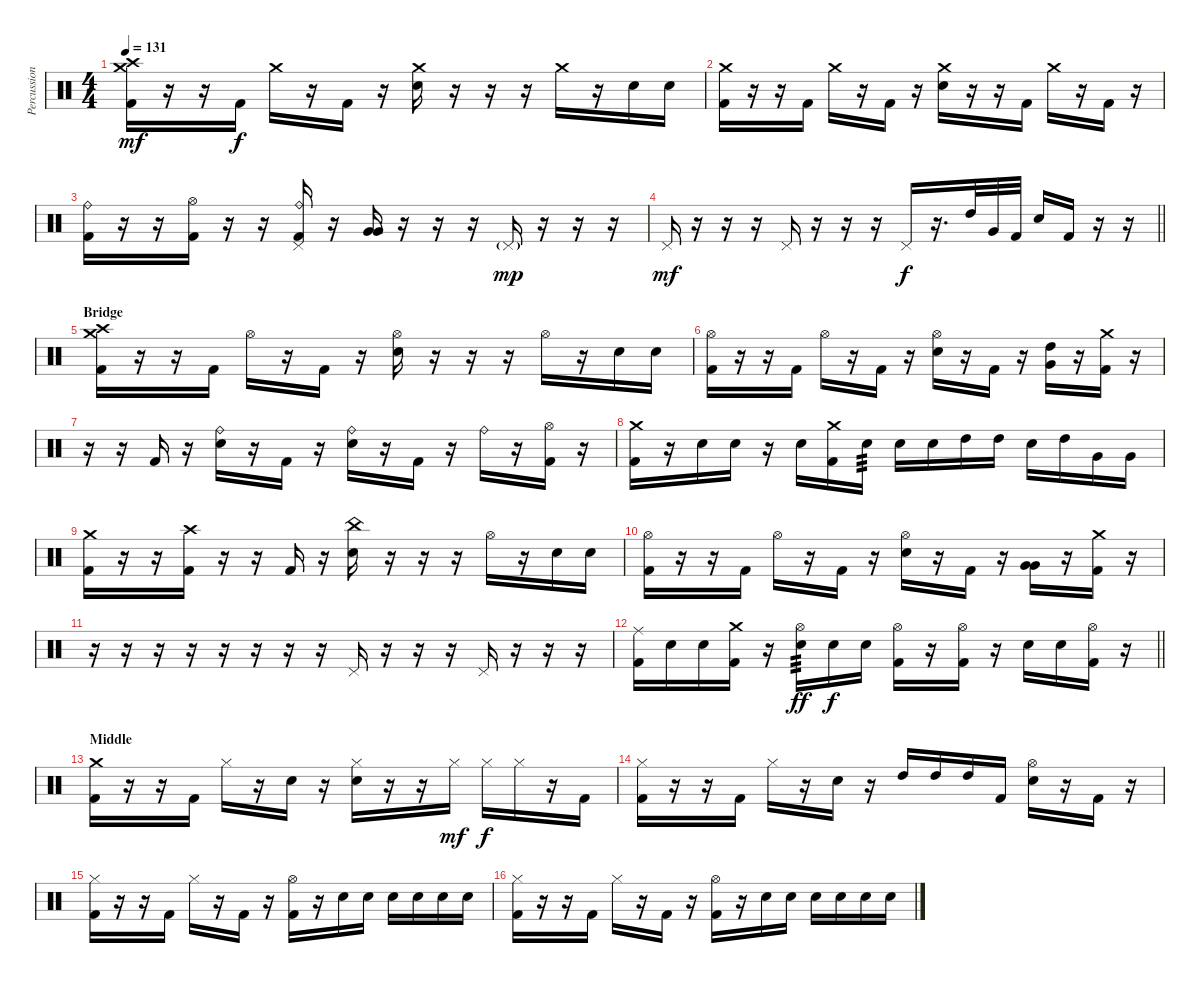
\track ("Percussion" "Percussion") {instrument percussion}
\staff {score}
\articulation defaults
\ts (4 4)
\tempo 131
\clef neutral
\ks c
("Crash medium (hit)" "Crash high (hit)" "Kick (hit) 2").16{dy mf} r.16 r.16 "Kick (hit) 2".16{dy f} "Crash medium (hit)".16 r.16 "Kick (hit) 2".16 r.16 ("Crash medium (hit)" "Snare (hit) 2").16 r.16 r.16 r.16 "Crash medium (hit)".16 r.16 "Snare (hit) 2".16 "Snare (hit) 2".16 |
("Crash medium (hit)" "Kick (hit) 2").16 r.16 r.16 "Kick (hit) 2".16 "Crash medium (hit)".16 r.16 "Kick (hit) 2".16 r.16 ("Crash medium (hit)" "Snare (hit) 2").16 r.16 r.16 "Kick (hit) 2".16 "Crash medium (hit)".16 r.16 "Kick (hit) 2".16 r.16 |
("Ride (bell)" "Kick (hit) 2").16 r.16 r.16 ("Hi-Hat (open)" "Kick (hit) 2").16 r.16 r.16 ("Ride (bell)" "Pedal Hi-Hat (hit)" "Kick (hit) 2").16 r.16 ("Very Low Tom (hit)" "Very Low Tom (hit)").16{bu 60} r.16 r.16 r.16 "Pedal Hi-Hat (hit)"{g}.16{dy mp} r.16 r.16 r.16 |
\barLineRight lightlight "Pedal Hi-Hat (hit)".16{dy mf}
r.16 r.16 r.16 "Pedal Hi-Hat (hit)".16 r.16 r.16 r.16 "Pedal Hi-Hat (hit)".16{dy f} r.16{d} "High Tom (hit)".32 "Very Low Tom (hit)".32 "Kick (hit) 2".32 "Snare (hit) 2".16 "Kick (hit) 2".16 r.16 r.16 |
\section ("" "Bridge")
("Crash high (hit)" "Crash medium (hit)" "Kick (hit) 2").16 r.16 r.16 "Kick (hit) 2".16 "Hi-Hat (open)".16 r.16 "Kick (hit) 2".16 r.16 ("Hi-Hat (open)" "Snare (hit) 2").16 r.16 r.16 r.16 "Hi-Hat (open)".16 r.16 "Snare (hit) 2".16 "Snare (hit) 2".16 |
("Hi-Hat (open)" "Kick (hit) 2").16 r.16 r.16 "Kick (hit) 2".16 "Hi-Hat (open)".16 r.16 "Kick (hit) 2".16 r.16 ("Hi-Hat (open)" "Snare (hit) 2").16 r.16 "Kick (hit) 2".16 r.16 ("High Tom (hit)" "Very Low Tom (hit)").16{bu 60} r.16 ("Crash medium (hit)" "Kick (hit) 2").16 r.16 |
r.16 r.16 "Kick (hit) 2".16 r.16 ("Ride (bell)" "Snare (hit) 2").16 r.16 "Kick (hit) 2".16 r.16 ("Ride (bell)" "Snare (hit) 2").16 r.16 "Kick (hit) 2".16 r.16 "Ride (bell)".16 r.16 ("Hi-Hat (open)" "Kick (hit) 2").16 r.16 |
("Crash medium (hit)" "Kick (hit) 2").16 r.16 "Snare (hit) 2".16 "Snare (hit) 2".16 r.16 "Snare (hit) 2".16 ("Crash medium (hit)" "Kick (hit) 2").16 "Snare (hit) 2".16{tp 3} "Snare (hit) 2".16 "Snare (hit) 2".16 "High Tom (hit)".16 "High Tom (hit)".16 "Snare (hit) 2".16 "High Tom (hit)".16 "Very Low Tom (hit)".16 "Very Low Tom (hit)".16 |
("Crash medium (hit)" "Kick (hit) 2").16 r.16 r.16 ("Crash high (hit)" "Kick (hit) 2").16 r.16 r.16 "Kick (hit) 2".16 r.16 ("China (hit)" "Snare (hit) 2").16 r.16 r.16 r.16 "Hi-Hat (open)".16 r.16 "Snare (hit) 2".16 "Snare (hit) 2".16 |
("Hi-Hat (open)" "Kick (hit) 2").16 r.16 r.16 "Kick (hit) 2".16 "Hi-Hat (open)".16 r.16 "Kick (hit) 2".16 r.16 ("Hi-Hat (open)" "Snare (hit) 2").16 r.16 "Kick (hit) 2".16 r.16 ("Very Low Tom (hit)" "Very Low Tom (hit)").16{bu 60} r.16 ("Crash medium (hit)" "Kick (hit) 2").16 r.16 |
r.16 r.16 r.16 r.16 r.16 r.16 r.16 r.16 "Pedal Hi-Hat (hit)".16 r.16 r.16 r.16 "Pedal Hi-Hat (hit)".16 r.16 r.16 r.16 |
\barLineRight lightlight
("Ride (middle)" "Kick (hit) 2").16 "Snare (hit) 2".16 "Snare (hit) 2".16 ("Crash medium (hit)" "Kick (hit) 2").16 r.16 ("Hi-Hat (open)" "Snare (hit) 2").16{tp 3 dy ff} "Snare (hit) 2".16{dy f} "Snare (hit) 2".16 ("Hi-Hat (open)" "Kick (hit) 2").16 r.16 ("Hi-Hat (open)" "Kick (hit) 2").16 r.16 "Snare (hit) 2".16 "Snare (hit) 2".16 ("Hi-Hat (open)" "Kick (hit) 2").16 r.16 |
\section ("" "Middle")
("Crash medium (hit)" "Kick (hit) 2").16 r.16 r.16 "Kick (hit) 2".16 "Hi-Hat (closed)".16 r.16 "Snare (hit) 2".16 r.16 ("Hi-Hat (closed)" "Snare (hit) 2").16 r.16 r.16 "Hi-Hat (closed)".16{dy mf} "Hi-Hat (closed)".16{dy f} "Hi-Hat (closed)".16 r.16 "Kick (hit) 2".16 |
("Hi-Hat (closed)" "Kick (hit) 2").16 r.16 r.16 "Kick (hit) 2".16 "Hi-Hat (closed)".16 r.16 "Snare (hit) 2".16 r.16 "High Tom (hit)".16 "High Tom (hit)".16 "High Tom (hit)".16 "Kick (hit) 2".16 ("Hi-Hat (open)" "Snare (hit) 2").16 r.16 "Kick (hit) 2".16 r.16 |
("Hi-Hat (closed)" "Kick (hit) 2").16 r.16 r.16 "Kick (hit) 2".16 "Hi-Hat (closed)".16 r.16 "Kick (hit) 2".16 r.16 ("Hi-Hat (open)" "Kick (hit) 2").16 r.16 "Snare (hit) 2".16 "Snare (hit) 2".16 "Snare (hit) 2".16 "Snare (hit) 2".16 "Snare (hit) 2".16 "Snare (hit) 2".16 |
("Hi-Hat (closed)" "Kick (hit) 2").16 r.16 r.16 "Kick (hit) 2".16 "Hi-Hat (closed)".16 r.16 "Kick (hit) 2".16 r.16 ("Hi-Hat (open)" "Kick (hit) 2").16 r.16 "Snare (hit) 2".16 "Snare (hit) 2".16 "Snare (hit) 2".16 "Snare (hit) 2".16 "Snare (hit) 2".16 "Snare (hit) 2".16
